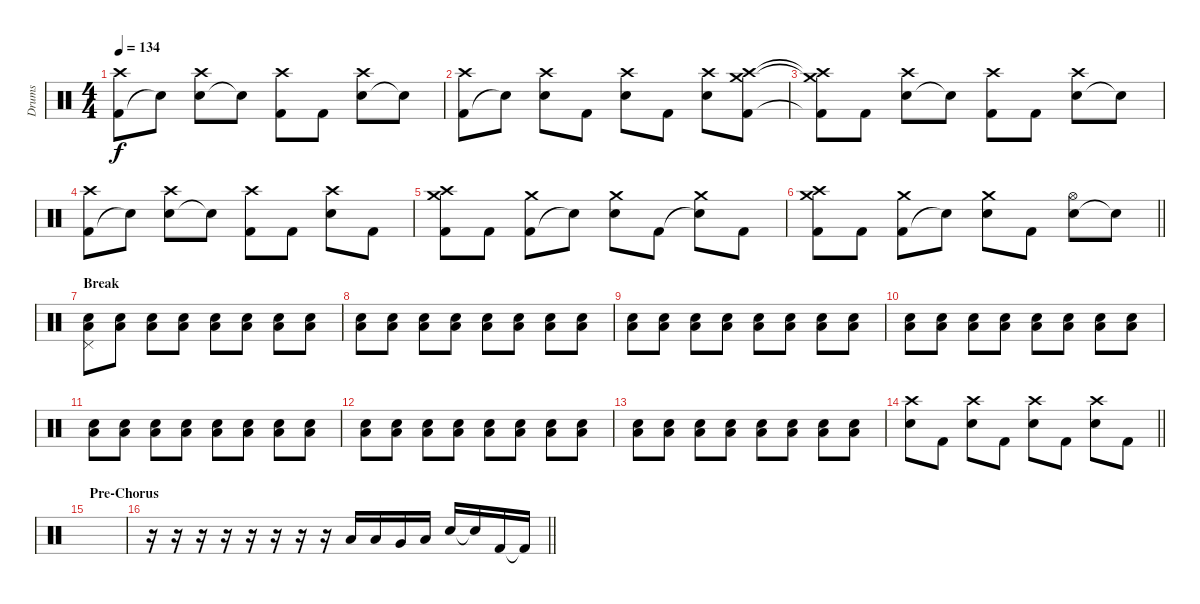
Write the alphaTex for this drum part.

\track ("Drums" "Drums") {instrument percussion}
\staff {score}
\articulation defaults
\ts (4 4)
\tempo 134
\clef neutral
\ks c
("Kick (hit) 2" "Crash high (hit)").8{dy f} "Snare (hit)"{t}.8 ("Electric Snare (hit)" "Crash high (hit)").8 "Snare (hit)"{t}.8 ("Kick (hit) 2" "Crash high (hit)").8 "Kick (hit) 2".8 ("Electric Snare (hit)" "Crash high (hit)").8 "Snare (hit)"{t}.8 |
("Kick (hit) 2" "Crash high (hit)").8 "Snare (hit)"{t}.8 ("Electric Snare (hit)" "Crash high (hit)").8 "Kick (hit) 2".8 ("Electric Snare (hit)" "Crash high (hit)").8 "Kick (hit) 2".8 ("Electric Snare (hit)" "Crash high (hit)").8 ("Kick (hit) 2" "Crash medium (hit)" "Crash high (hit)").8 |
("Kick (hit) 2"{t} "Crash medium (hit)"{t} "Crash high (hit)"{t}).8 "Kick (hit) 2".8 ("Electric Snare (hit)" "Crash high (hit)").8 "Snare (hit)"{t}.8 ("Kick (hit) 2" "Crash high (hit)").8 "Kick (hit) 2".8 ("Electric Snare (hit)" "Crash high (hit)").8 "Snare (hit)"{t}.8 |
("Kick (hit) 2" "Crash high (hit)").8 "Snare (hit)"{t}.8 ("Electric Snare (hit)" "Crash high (hit)").8 "Snare (hit)"{t}.8 ("Kick (hit) 2" "Crash high (hit)").8 "Kick (hit) 2".8 ("Electric Snare (hit)" "Crash high (hit)").8 "Kick (hit) 2".8 |
("Kick (hit) 2" "Crash medium (hit)" "Crash high (hit)").8 "Kick (hit) 2".8 ("Kick (hit) 2" "Crash medium (hit)").8 "Snare (hit)"{t}.8 ("Electric Snare (hit)" "Crash medium (hit)").8 "Kick (hit) 2".8 ("Electric Snare (hit)"{t} "Crash medium (hit)").8 "Kick (hit) 2".8 |
\barLineRight lightlight
("Kick (hit) 2" "Crash medium (hit)" "Crash high (hit)").8 "Kick (hit) 2".8 ("Kick (hit) 2" "Crash medium (hit)").8 "Snare (hit)"{t}.8 ("Electric Snare (hit)" "Crash medium (hit)").8 "Kick (hit) 2".8 ("Electric Snare (hit)" "Hi-Hat (open)").8 "Snare (hit)"{t}.8 |
\section ("" "Break")
("Electric Snare (hit)" "Pedal Hi-Hat (hit)" "Low Floor Tom (hit)").8{volume 6} ("Electric Snare (hit)" "Low Floor Tom (hit)").8 ("Electric Snare (hit)" "Low Floor Tom (hit)").8 ("Electric Snare (hit)" "Low Floor Tom (hit)").8 ("Electric Snare (hit)" "Low Floor Tom (hit)").8 ("Electric Snare (hit)" "Low Floor Tom (hit)").8 ("Electric Snare (hit)" "Low Floor Tom (hit)").8 ("Electric Snare (hit)" "Low Floor Tom (hit)").8 |
("Electric Snare (hit)" "Low Floor Tom (hit)").8 ("Electric Snare (hit)" "Low Floor Tom (hit)").8 ("Electric Snare (hit)" "Low Floor Tom (hit)").8 ("Electric Snare (hit)" "Low Floor Tom (hit)").8 ("Electric Snare (hit)" "Low Floor Tom (hit)").8 ("Electric Snare (hit)" "Low Floor Tom (hit)").8 ("Electric Snare (hit)" "Low Floor Tom (hit)").8 ("Electric Snare (hit)" "Low Floor Tom (hit)").8 |
("Electric Snare (hit)" "Low Floor Tom (hit)").8 ("Electric Snare (hit)" "Low Floor Tom (hit)").8 ("Electric Snare (hit)" "Low Floor Tom (hit)").8 ("Electric Snare (hit)" "Low Floor Tom (hit)").8 ("Electric Snare (hit)" "Low Floor Tom (hit)").8 ("Electric Snare (hit)" "Low Floor Tom (hit)").8 ("Electric Snare (hit)" "Low Floor Tom (hit)").8 ("Electric Snare (hit)" "Low Floor Tom (hit)").8 |
("Electric Snare (hit)" "Low Floor Tom (hit)").8 ("Electric Snare (hit)" "Low Floor Tom (hit)").8 ("Electric Snare (hit)" "Low Floor Tom (hit)").8 ("Electric Snare (hit)" "Low Floor Tom (hit)").8 ("Electric Snare (hit)" "Low Floor Tom (hit)").8 ("Electric Snare (hit)" "Low Floor Tom (hit)").8 ("Electric Snare (hit)" "Low Floor Tom (hit)").8 ("Electric Snare (hit)" "Low Floor Tom (hit)").8 |
("Electric Snare (hit)" "Low Floor Tom (hit)").8{volume 13} ("Electric Snare (hit)" "Low Floor Tom (hit)").8 ("Electric Snare (hit)" "Low Floor Tom (hit)").8 ("Electric Snare (hit)" "Low Floor Tom (hit)").8 ("Electric Snare (hit)" "Low Floor Tom (hit)").8 ("Electric Snare (hit)" "Low Floor Tom (hit)").8 ("Electric Snare (hit)" "Low Floor Tom (hit)").8 ("Electric Snare (hit)" "Low Floor Tom (hit)").8 |
("Electric Snare (hit)" "Low Floor Tom (hit)").8 ("Electric Snare (hit)" "Low Floor Tom (hit)").8 ("Electric Snare (hit)" "Low Floor Tom (hit)").8 ("Electric Snare (hit)" "Low Floor Tom (hit)").8 ("Electric Snare (hit)" "Low Floor Tom (hit)").8 ("Electric Snare (hit)" "Low Floor Tom (hit)").8 ("Electric Snare (hit)" "Low Floor Tom (hit)").8 ("Electric Snare (hit)" "Low Floor Tom (hit)").8 |
("Electric Snare (hit)" "Low Floor Tom (hit)").8 ("Electric Snare (hit)" "Low Floor Tom (hit)").8 ("Electric Snare (hit)" "Low Floor Tom (hit)").8 ("Electric Snare (hit)" "Low Floor Tom (hit)").8 ("Electric Snare (hit)" "Low Floor Tom (hit)").8 ("Electric Snare (hit)" "Low Floor Tom (hit)").8 ("Electric Snare (hit)" "Low Floor Tom (hit)").8 ("Electric Snare (hit)" "Low Floor Tom (hit)").8 |
\barLineRight lightlight
("Electric Snare (hit)" "Crash high (hit)").8 "Kick (hit) 2".8 ("Electric Snare (hit)" "Crash high (hit)").8 "Kick (hit) 2".8 ("Electric Snare (hit)" "Crash high (hit)").8 "Kick (hit) 2".8 ("Electric Snare (hit)" "Crash high (hit)").8 "Kick (hit) 2".8 |
\section ("" "Pre-Chorus")
|
\barLineRight lightlight
r.16 r.16 r.16 r.16 r.16 r.16 r.16 r.16 "Low Tom (hit)".16 "Low Tom (hit)".16 "Very Low Tom (hit)".16 "Low Floor Tom (hit)".16 "Electric Snare (hit)".16 "Snare (hit)"{t}.16 "Kick (hit) 2".16 "Kick (hit) 2"{t}.16
